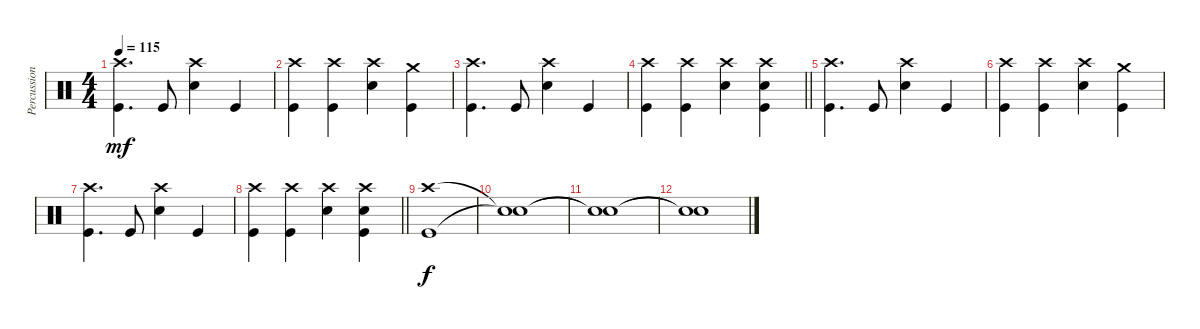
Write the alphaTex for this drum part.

\track ("Percussion" "Percussion") {instrument percussion}
\staff {score}
\articulation defaults
\ts (4 4)
\tempo 115
\clef neutral
\ks c
("Crash high (hit)" "Kick (hit)").4{d dy mf} "Kick (hit)".8 ("Snare (hit) 2" "Crash high (hit)").4 "Kick (hit)".4 |
("Crash high (hit)" "Kick (hit)").4 ("Crash high (hit)" "Kick (hit)").4 ("Snare (hit) 2" "Crash high (hit)").4 ("Crash medium (hit)" "Kick (hit)").4 |
("Crash high (hit)" "Kick (hit)").4{d} "Kick (hit)".8 ("Snare (hit) 2" "Crash high (hit)").4 "Kick (hit)".4 |
\barLineRight lightlight
("Crash high (hit)" "Kick (hit)").4 ("Crash high (hit)" "Kick (hit)").4 ("Snare (hit) 2" "Crash high (hit)").4 ("Snare (hit) 2" "Crash high (hit)" "Kick (hit)").4 |
("Crash high (hit)" "Kick (hit)").4{d} "Kick (hit)".8 ("Snare (hit) 2" "Crash high (hit)").4 "Kick (hit)".4 |
("Crash high (hit)" "Kick (hit)").4 ("Crash high (hit)" "Kick (hit)").4 ("Snare (hit) 2" "Crash high (hit)").4 ("Crash medium (hit)" "Kick (hit)").4 |
("Crash high (hit)" "Kick (hit)").4{d} "Kick (hit)".8 ("Snare (hit) 2" "Crash high (hit)").4 "Kick (hit)".4 |
\barLineRight lightlight
("Crash high (hit)" "Kick (hit)").4 ("Crash high (hit)" "Kick (hit)").4 ("Snare (hit) 2" "Crash high (hit)").4 ("Snare (hit) 2" "Crash high (hit)" "Kick (hit)").4 |
("Crash high (hit)" "Kick (hit)").1{dy f volume 0} |
("Snare (hit)"{t} "Snare (hit)"{t}).1 |
("Snare (hit)"{t} "Snare (hit)"{t}).1 |
("Snare (hit)"{t} "Snare (hit)"{t}).1
